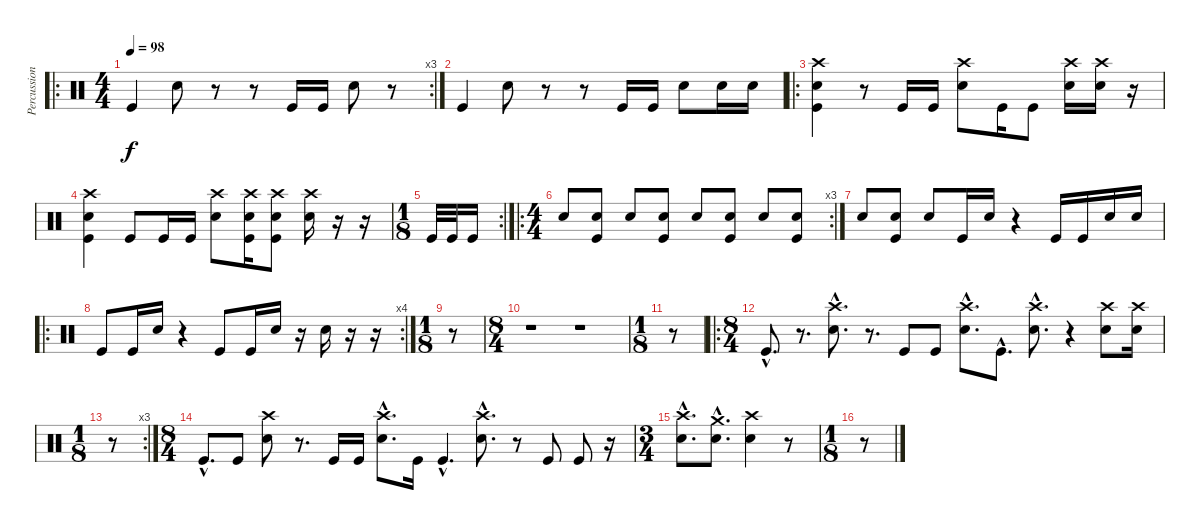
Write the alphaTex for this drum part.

\track ("Percussion" "Percussion") {instrument percussion}
\staff {score}
\articulation defaults
\ro
\rc 3
\ts (4 4)
\tempo 98
\clef neutral
\ks c "Kick (hit)".4{dy f} "Electric Snare (hit)".8
r.8 r.8 "Kick (hit)".16 "Kick (hit)".16 "Electric Snare (hit)".8 r.8 |
"Kick (hit)".4 "Electric Snare (hit)".8 r.8 r.8 "Kick (hit)".16 "Kick (hit)".16 "Electric Snare (hit)".8 "Electric Snare (hit)".16 "Electric Snare (hit)".16 |
\ro
("Crash high (hit)" "Electric Snare (hit)" "Kick (hit)").4 r.8 "Kick (hit)".16 "Kick (hit)".16 ("Crash high (hit)" "Electric Snare (hit)").8 "Kick (hit)".16 "Kick (hit)".8 ("Crash high (hit)" "Electric Snare (hit)").16 ("Crash high (hit)" "Electric Snare (hit)").16 r.16 |
("Crash high (hit)" "Electric Snare (hit)" "Kick (hit)").4 "Kick (hit)".8 "Kick (hit)".16 "Kick (hit)".16 ("Crash high (hit)" "Electric Snare (hit)").8 ("Crash high (hit)" "Electric Snare (hit)" "Kick (hit)").16 ("Crash high (hit)" "Electric Snare (hit)" "Kick (hit)").8 ("Crash high (hit)" "Electric Snare (hit)").16 r.16 r.16 |
\rc 2
\ts (1 8)
"Kick (hit)".32 "Kick (hit)".32 "Kick (hit)".16 |
\ro
\rc 3
\ts (4 4)
"Electric Snare (hit)".8 ("Electric Snare (hit)" "Kick (hit)").8 "Electric Snare (hit)".8 ("Electric Snare (hit)" "Kick (hit)").8 "Electric Snare (hit)".8 ("Electric Snare (hit)" "Kick (hit)").8 "Electric Snare (hit)".8 ("Electric Snare (hit)" "Kick (hit)").8 |
"Electric Snare (hit)".8 ("Electric Snare (hit)" "Kick (hit)").8 "Electric Snare (hit)".8 "Kick (hit)".16 "Electric Snare (hit)".16 r.4 "Kick (hit)".16 "Kick (hit)".16 "Electric Snare (hit)".16 "Electric Snare (hit)".16 |
\ro
\rc 4 "Kick (hit)".8 "Kick (hit)".16 "Electric Snare (hit)".16
r.4 "Kick (hit)".8 "Kick (hit)".16 "Electric Snare (hit)".16 r.16 "Electric Snare (hit)".16 r.16 r.16 |
\ts (1 8)
r.8 |
\ts (8 4)
r.1 r.1 |
\ts (1 8)
r.8 |
\ro
\ts (8 4)
"Kick (hit)"{hac}.8{d} r.8{d} ("Crash high (hit)"{hac} "Electric Snare (hit)"{hac}).8{d} r.8{d} "Kick (hit)".8 "Kick (hit)".8 ("Crash high (hit)"{hac} "Electric Snare (hit)"{hac}).8{d} "Kick (hit)"{hac}.8{d} ("Crash high (hit)"{hac} "Electric Snare (hit)"{hac}).8{d} r.4 ("Crash high (hit)" "Electric Snare (hit)").8 ("Crash high (hit)" "Electric Snare (hit)").16 |
\rc 3
\ts (1 8)
r.8 |
\ts (8 4)
"Kick (hit)"{hac}.8{d} "Kick (hit)".8 ("Crash high (hit)" "Electric Snare (hit)").8 r.8{d} "Kick (hit)".16 "Kick (hit)".16 ("Crash high (hit)"{hac} "Electric Snare (hit)"{hac}).8{d} "Kick (hit)".16 "Kick (hit)"{hac}.4{d} ("Crash high (hit)"{hac} "Electric Snare (hit)"{hac}).8{d} r.8 "Kick (hit)".8 "Kick (hit)".8 r.16 |
\ts (3 4)
("Crash high (hit)"{hac} "Electric Snare (hit)"{hac}).8{d} ("Crash medium (hit)"{hac} "Electric Snare (hit)"{hac}).8{d} ("Crash high (hit)" "Electric Snare (hit)").4 r.8 |
\ts (1 8)
r.8
